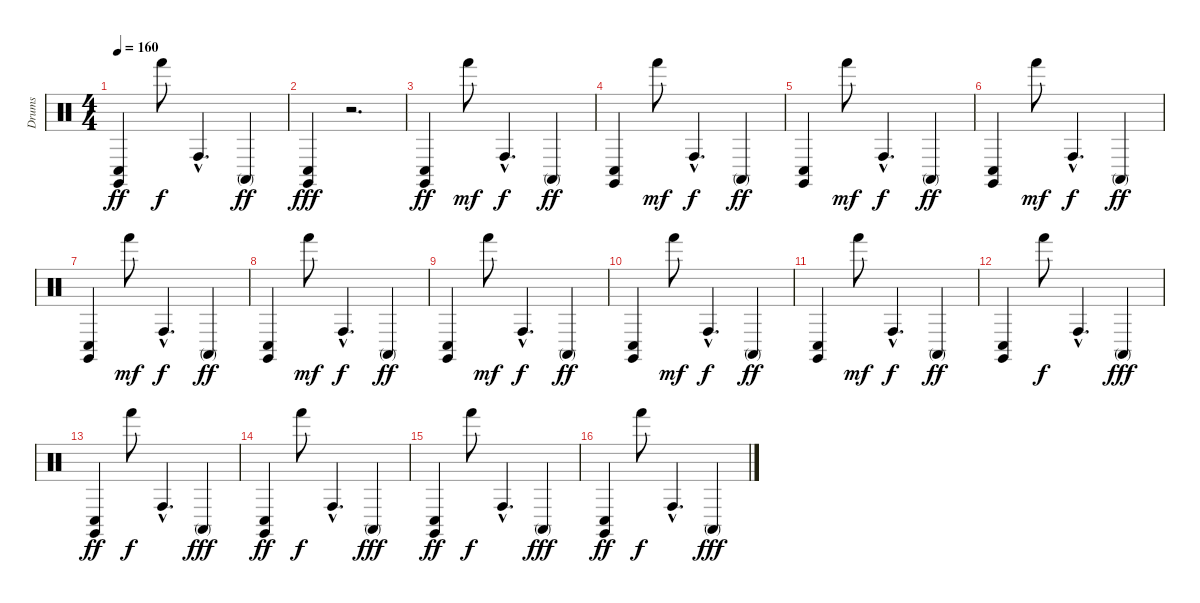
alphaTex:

\track ("Drums" "Drums") {instrument percussion}
\staff {score}
\articulation defaults
\ts (4 4)
\tempo 160
\clef neutral
\ks c
("Claves (hit)" "Conga low (hit)").4{dy ff} "Hand (hit)".8{dy f} "Conga high (hit)"{hac}.4{d} "Conga high (mute)".4{dy ff} |
("Claves (hit)" "Conga low (hit)").4{dy fff} r.2{d} |
("Claves (hit)" "Conga low (hit)").4{dy ff} "Hand (hit)".8{dy mf} "Conga high (hit)"{hac}.4{d dy f} "Conga high (mute)".4{dy ff} |
("Claves (hit)" "Conga low (hit)").4 "Hand (hit)".8{dy mf} "Conga high (hit)"{hac}.4{d dy f} "Conga high (mute)".4{dy ff} |
("Claves (hit)" "Conga low (hit)").4 "Hand (hit)".8{dy mf} "Conga high (hit)"{hac}.4{d dy f} "Conga high (mute)".4{dy ff} |
("Claves (hit)" "Conga low (hit)").4 "Hand (hit)".8{dy mf} "Conga high (hit)"{hac}.4{d dy f} "Conga high (mute)".4{dy ff} |
("Claves (hit)" "Conga low (hit)").4 "Hand (hit)".8{dy mf} "Conga high (hit)"{hac}.4{d dy f} "Conga high (mute)".4{dy ff} |
("Claves (hit)" "Conga low (hit)").4 "Hand (hit)".8{dy mf} "Conga high (hit)"{hac}.4{d dy f} "Conga high (mute)".4{dy ff} |
("Claves (hit)" "Conga low (hit)").4 "Hand (hit)".8{dy mf} "Conga high (hit)"{hac}.4{d dy f} "Conga high (mute)".4{dy ff} |
("Claves (hit)" "Conga low (hit)").4 "Hand (hit)".8{dy mf} "Conga high (hit)"{hac}.4{d dy f} "Conga high (mute)".4{dy ff} |
("Claves (hit)" "Conga low (hit)").4 "Hand (hit)".8{dy mf} "Conga high (hit)"{hac}.4{d dy f} "Conga high (mute)".4{dy ff} |
("Claves (hit)" "Conga low (hit)").4 "Hand (hit)".8{dy f} "Conga high (hit)"{hac}.4{d} "Conga high (mute)".4{dy fff} |
("Claves (hit)" "Conga low (hit)").4{dy ff} "Hand (hit)".8{dy f} "Conga high (hit)"{hac}.4{d} "Conga high (mute)".4{dy fff} |
("Claves (hit)" "Conga low (hit)").4{dy ff} "Hand (hit)".8{dy f} "Conga high (hit)"{hac}.4{d} "Conga high (mute)".4{dy fff} |
("Claves (hit)" "Conga low (hit)").4{dy ff} "Hand (hit)".8{dy f} "Conga high (hit)"{hac}.4{d} "Conga high (mute)".4{dy fff} |
("Claves (hit)" "Conga low (hit)").4{dy ff} "Hand (hit)".8{dy f} "Conga high (hit)"{hac}.4{d} "Conga high (mute)".4{dy fff}
